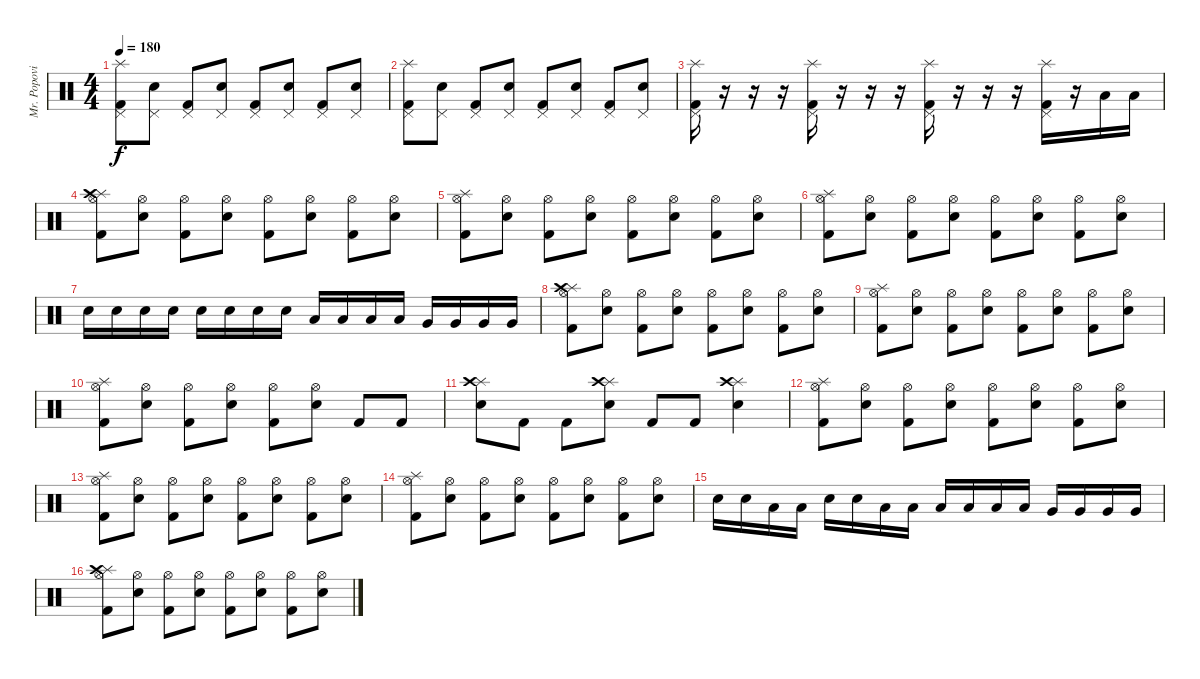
\track ("Mr. Popovic" "Mr. Popovi") {instrument percussion}
\staff {score}
\articulation defaults
\ts (4 4)
\tempo 180
\clef neutral
\ks c
("Splash (hit)" "Pedal Hi-Hat (hit)" "Kick (hit) 2").8{dy f} ("Pedal Hi-Hat (hit)" "Electric Snare (hit)").8 ("Pedal Hi-Hat (hit)" "Kick (hit) 2").8 ("Pedal Hi-Hat (hit)" "Electric Snare (hit)").8 ("Pedal Hi-Hat (hit)" "Kick (hit) 2").8 ("Pedal Hi-Hat (hit)" "Electric Snare (hit)").8 ("Pedal Hi-Hat (hit)" "Kick (hit) 2").8 ("Pedal Hi-Hat (hit)" "Electric Snare (hit)").8 |
("Splash (hit)" "Pedal Hi-Hat (hit)" "Kick (hit) 2").8 ("Pedal Hi-Hat (hit)" "Electric Snare (hit)").8 ("Pedal Hi-Hat (hit)" "Kick (hit) 2").8 ("Pedal Hi-Hat (hit)" "Electric Snare (hit)").8 ("Pedal Hi-Hat (hit)" "Kick (hit) 2").8 ("Pedal Hi-Hat (hit)" "Electric Snare (hit)").8 ("Pedal Hi-Hat (hit)" "Kick (hit) 2").8 ("Pedal Hi-Hat (hit)" "Electric Snare (hit)").8 |
("Splash (hit)" "Pedal Hi-Hat (hit)" "Kick (hit) 2").16 r.16 r.16 r.16 ("Splash (hit)" "Pedal Hi-Hat (hit)" "Kick (hit) 2").16 r.16 r.16 r.16 ("Splash (hit)" "Pedal Hi-Hat (hit)" "Kick (hit) 2").16 r.16 r.16 r.16 ("Splash (hit)" "Pedal Hi-Hat (hit)" "Kick (hit) 2").16 r.16 "Low Tom (hit)".16 "Low Tom (hit)".16 |
("Splash (hit)" "Crash high (hit)" "Hi-Hat (open)" "Kick (hit) 2").8 ("Hi-Hat (open)" "Electric Snare (hit)").8 ("Hi-Hat (open)" "Kick (hit) 2").8 ("Hi-Hat (open)" "Electric Snare (hit)").8 ("Hi-Hat (open)" "Kick (hit) 2").8 ("Hi-Hat (open)" "Electric Snare (hit)").8 ("Hi-Hat (open)" "Kick (hit) 2").8 ("Hi-Hat (open)" "Electric Snare (hit)").8 |
("Splash (hit)" "Hi-Hat (open)" "Kick (hit) 2").8 ("Hi-Hat (open)" "Electric Snare (hit)").8 ("Hi-Hat (open)" "Kick (hit) 2").8 ("Hi-Hat (open)" "Electric Snare (hit)").8 ("Hi-Hat (open)" "Kick (hit) 2").8 ("Hi-Hat (open)" "Electric Snare (hit)").8 ("Hi-Hat (open)" "Kick (hit) 2").8 ("Hi-Hat (open)" "Electric Snare (hit)").8 |
("Splash (hit)" "Hi-Hat (open)" "Kick (hit) 2").8 ("Hi-Hat (open)" "Electric Snare (hit)").8 ("Hi-Hat (open)" "Kick (hit) 2").8 ("Hi-Hat (open)" "Electric Snare (hit)").8 ("Hi-Hat (open)" "Kick (hit) 2").8 ("Hi-Hat (open)" "Electric Snare (hit)").8 ("Hi-Hat (open)" "Kick (hit) 2").8 ("Hi-Hat (open)" "Electric Snare (hit)").8 |
"Electric Snare (hit)".16 "Electric Snare (hit)".16 "Electric Snare (hit)".16 "Electric Snare (hit)".16 "Electric Snare (hit)".16 "Electric Snare (hit)".16 "Electric Snare (hit)".16 "Electric Snare (hit)".16 "Low Tom (hit)".16 "Low Tom (hit)".16 "Low Tom (hit)".16 "Low Tom (hit)".16 "Very Low Tom (hit)".16 "Very Low Tom (hit)".16 "Very Low Tom (hit)".16 "Very Low Tom (hit)".16 |
("Splash (hit)" "Crash high (hit)" "Hi-Hat (open)" "Kick (hit) 2").8 ("Hi-Hat (open)" "Electric Snare (hit)").8 ("Hi-Hat (open)" "Kick (hit) 2").8 ("Hi-Hat (open)" "Electric Snare (hit)").8 ("Hi-Hat (open)" "Kick (hit) 2").8 ("Hi-Hat (open)" "Electric Snare (hit)").8 ("Hi-Hat (open)" "Kick (hit) 2").8 ("Hi-Hat (open)" "Electric Snare (hit)").8 |
("Splash (hit)" "Hi-Hat (open)" "Kick (hit) 2").8 ("Hi-Hat (open)" "Electric Snare (hit)").8 ("Hi-Hat (open)" "Kick (hit) 2").8 ("Hi-Hat (open)" "Electric Snare (hit)").8 ("Hi-Hat (open)" "Kick (hit) 2").8 ("Hi-Hat (open)" "Electric Snare (hit)").8 ("Hi-Hat (open)" "Kick (hit) 2").8 ("Hi-Hat (open)" "Electric Snare (hit)").8 |
("Splash (hit)" "Hi-Hat (open)" "Kick (hit) 2").8 ("Hi-Hat (open)" "Electric Snare (hit)").8 ("Hi-Hat (open)" "Kick (hit) 2").8 ("Hi-Hat (open)" "Electric Snare (hit)").8 ("Hi-Hat (open)" "Kick (hit) 2").8 ("Hi-Hat (open)" "Electric Snare (hit)").8 "Kick (hit) 2".8 "Kick (hit) 2".8 |
("Splash (hit)" "Crash high (hit)" "Electric Snare (hit)").8 "Kick (hit) 2".8 "Kick (hit) 2".8 ("Splash (hit)" "Crash high (hit)" "Electric Snare (hit)").8 "Kick (hit) 2".8 "Kick (hit) 2".8 ("Splash (hit)" "Crash high (hit)" "Electric Snare (hit)").4 |
("Splash (hit)" "Hi-Hat (open)" "Kick (hit) 2").8 ("Hi-Hat (open)" "Electric Snare (hit)").8 ("Hi-Hat (open)" "Kick (hit) 2").8 ("Hi-Hat (open)" "Electric Snare (hit)").8 ("Hi-Hat (open)" "Kick (hit) 2").8 ("Hi-Hat (open)" "Electric Snare (hit)").8 ("Hi-Hat (open)" "Kick (hit) 2").8 ("Hi-Hat (open)" "Electric Snare (hit)").8 |
("Splash (hit)" "Hi-Hat (open)" "Kick (hit) 2").8 ("Hi-Hat (open)" "Electric Snare (hit)").8 ("Hi-Hat (open)" "Kick (hit) 2").8 ("Hi-Hat (open)" "Electric Snare (hit)").8 ("Hi-Hat (open)" "Kick (hit) 2").8 ("Hi-Hat (open)" "Electric Snare (hit)").8 ("Hi-Hat (open)" "Kick (hit) 2").8 ("Hi-Hat (open)" "Electric Snare (hit)").8 |
("Splash (hit)" "Hi-Hat (open)" "Kick (hit) 2").8 ("Hi-Hat (open)" "Electric Snare (hit)").8 ("Hi-Hat (open)" "Kick (hit) 2").8 ("Hi-Hat (open)" "Electric Snare (hit)").8 ("Hi-Hat (open)" "Kick (hit) 2").8 ("Hi-Hat (open)" "Electric Snare (hit)").8 ("Hi-Hat (open)" "Kick (hit) 2").8 ("Hi-Hat (open)" "Electric Snare (hit)").8 |
"Electric Snare (hit)".16 "Electric Snare (hit)".16 "Low Tom (hit)".16 "Low Tom (hit)".16 "Electric Snare (hit)".16 "Electric Snare (hit)".16 "Low Tom (hit)".16 "Low Tom (hit)".16 "Low Tom (hit)".16 "Low Tom (hit)".16 "Low Tom (hit)".16 "Low Tom (hit)".16 "Very Low Tom (hit)".16 "Very Low Tom (hit)".16 "Very Low Tom (hit)".16 "Very Low Tom (hit)".16 |
("Splash (hit)" "Crash high (hit)" "Hi-Hat (open)" "Kick (hit) 2").8 ("Hi-Hat (open)" "Electric Snare (hit)").8 ("Hi-Hat (open)" "Kick (hit) 2").8 ("Hi-Hat (open)" "Electric Snare (hit)").8 ("Hi-Hat (open)" "Kick (hit) 2").8 ("Hi-Hat (open)" "Electric Snare (hit)").8 ("Hi-Hat (open)" "Kick (hit) 2").8 ("Hi-Hat (open)" "Electric Snare (hit)").8
